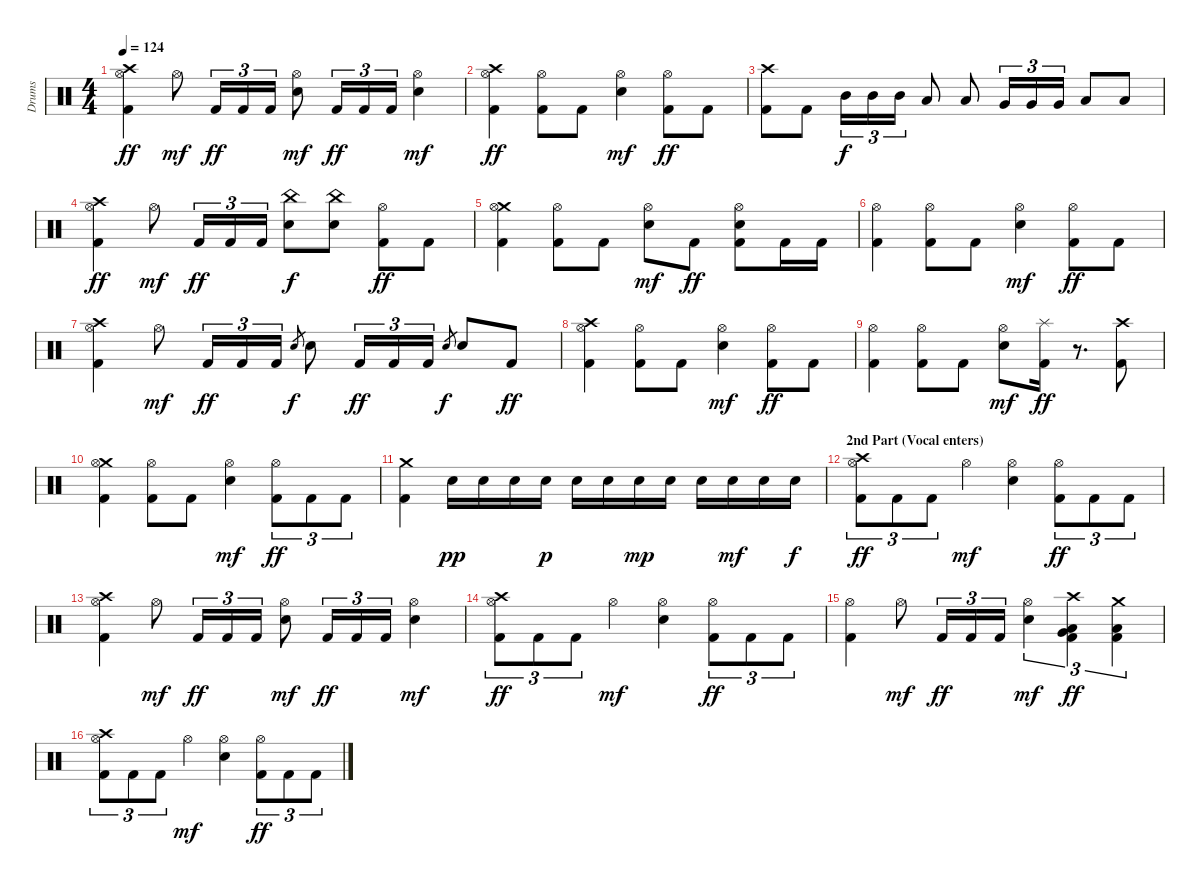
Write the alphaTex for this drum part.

\track ("Drums" "Drums") {instrument percussion}
\staff {score}
\articulation defaults
\ts (4 4)
\tempo 124
\clef neutral
\ks c
("Crash high (hit)" "Hi-Hat (open)" "Kick (hit) 2").4{dy ff} "Hi-Hat (open)".8{dy mf} "Kick (hit) 2".16{tu (3 2) dy ff} "Kick (hit) 2".16{tu (3 2)} "Kick (hit) 2".16{tu (3 2)} ("Hi-Hat (open)" "Snare (hit) 2").8{dy mf} "Kick (hit) 2".16{tu (3 2) dy ff} "Kick (hit) 2".16{tu (3 2)} "Kick (hit) 2".16{tu (3 2)} ("Hi-Hat (open)" "Snare (hit) 2").4{dy mf} |
("Crash high (hit)" "Hi-Hat (open)" "Kick (hit) 2").4{dy ff} ("Hi-Hat (open)" "Kick (hit) 2").8 "Kick (hit) 2".8 ("Hi-Hat (open)" "Snare (hit) 2").4{dy mf} ("Hi-Hat (open)" "Kick (hit) 2").8{dy ff} "Kick (hit) 2".8 |
("Crash high (hit)" "Kick (hit) 2").8 "Kick (hit) 2".8 "Mid Tom (hit)".16{tu (3 2) dy f} "Mid Tom (hit)".16{tu (3 2)} "Mid Tom (hit)".16{tu (3 2)} "Low Tom (hit)".8 "Low Tom (hit)".8 "Very Low Tom (hit)".16{tu (3 2)} "Very Low Tom (hit)".16{tu (3 2)} "Very Low Tom (hit)".16{tu (3 2)} "Low Floor Tom (hit)".8 "Low Floor Tom (hit)".8 |
("Crash high (hit)" "Hi-Hat (open)" "Kick (hit) 2").4{dy ff} "Hi-Hat (open)".8{dy mf} "Kick (hit) 2".16{tu (3 2) dy ff} "Kick (hit) 2".16{tu (3 2)} "Kick (hit) 2".16{tu (3 2)} ("China (hit)" "Snare (hit) 2").8{dy f} ("China (hit)" "Snare (hit) 2").8 ("Hi-Hat (open)" "Kick (hit) 2").8{dy ff} "Kick (hit) 2".8 |
("Crash medium (hit)" "Hi-Hat (open)" "Kick (hit) 2").4 ("Hi-Hat (open)" "Kick (hit) 2").8 "Kick (hit) 2".8 ("Hi-Hat (open)" "Snare (hit) 2").8{dy mf} "Kick (hit) 2".8{dy ff} ("Hi-Hat (open)" "Snare (hit) 2" "Kick (hit) 2").8 "Kick (hit) 2".16 "Kick (hit) 2".16 |
("Hi-Hat (open)" "Kick (hit) 2").4 ("Hi-Hat (open)" "Kick (hit) 2").8 "Kick (hit) 2".8 ("Hi-Hat (open)" "Snare (hit) 2").4{dy mf} ("Hi-Hat (open)" "Kick (hit) 2").8{dy ff} "Kick (hit) 2".8 |
("Crash high (hit)" "Hi-Hat (open)" "Kick (hit) 2").4 "Hi-Hat (open)".8{dy mf} "Kick (hit) 2".16{tu (3 2) dy ff} "Kick (hit) 2".16{tu (3 2)} "Kick (hit) 2".16{tu (3 2)} "Snare (hit) 2".8{gr dy f} "Snare (hit) 2".8 "Kick (hit) 2".16{tu (3 2) dy ff} "Kick (hit) 2".16{tu (3 2)} "Kick (hit) 2".16{tu (3 2)} "Snare (hit) 2".8{gr dy f} "Snare (hit) 2".8 "Kick (hit) 2".8{dy ff} |
("Crash high (hit)" "Hi-Hat (open)" "Kick (hit) 2").4 ("Hi-Hat (open)" "Kick (hit) 2").8 "Kick (hit) 2".8 ("Hi-Hat (open)" "Snare (hit) 2").4{dy mf} ("Hi-Hat (open)" "Kick (hit) 2").8{dy ff} "Kick (hit) 2".8 |
("Hi-Hat (open)" "Kick (hit) 2").4 ("Hi-Hat (open)" "Kick (hit) 2").8 "Kick (hit) 2".8 ("Hi-Hat (open)" "Snare (hit) 2").8{dy mf} ("Splash (hit)" "Kick (hit) 2").16{dy ff} r.8{d} ("Crash high (hit)" "Kick (hit) 2").8 |
("Crash medium (hit)" "Hi-Hat (open)" "Kick (hit) 2").4 ("Hi-Hat (open)" "Kick (hit) 2").8 "Kick (hit) 2".8 ("Hi-Hat (open)" "Snare (hit) 2").4{dy mf} ("Hi-Hat (open)" "Kick (hit) 2").8{tu (3 2) dy ff} "Kick (hit) 2".8{tu (3 2)} "Kick (hit) 2".8{tu (3 2)} |
("Crash medium (hit)" "Kick (hit) 2").4 "Snare (hit) 2".16{dy pp} "Snare (hit) 2".16 "Snare (hit) 2".16 "Snare (hit) 2".16{dy p} "Snare (hit) 2".16 "Snare (hit) 2".16 "Snare (hit) 2".16{dy mp} "Snare (hit) 2".16 "Snare (hit) 2".16 "Snare (hit) 2".16{dy mf} "Snare (hit) 2".16 "Snare (hit) 2".16{dy f} |
\section ("" "2nd Part (Vocal enters)")
("Crash high (hit)" "Hi-Hat (open)" "Kick (hit) 2").8{tu (3 2) dy ff} "Kick (hit) 2".8{tu (3 2)} "Kick (hit) 2".8{tu (3 2)} "Hi-Hat (open)".4{dy mf} ("Hi-Hat (open)" "Snare (hit) 2").4 ("Hi-Hat (open)" "Kick (hit) 2").8{tu (3 2) dy ff} "Kick (hit) 2".8{tu (3 2)} "Kick (hit) 2".8{tu (3 2)} |
("Crash high (hit)" "Hi-Hat (open)" "Kick (hit) 2").4 "Hi-Hat (open)".8{dy mf} "Kick (hit) 2".16{tu (3 2) dy ff} "Kick (hit) 2".16{tu (3 2)} "Kick (hit) 2".16{tu (3 2)} ("Hi-Hat (open)" "Snare (hit) 2").8{dy mf} "Kick (hit) 2".16{tu (3 2) dy ff} "Kick (hit) 2".16{tu (3 2)} "Kick (hit) 2".16{tu (3 2)} ("Hi-Hat (open)" "Snare (hit) 2").4{dy mf} |
("Crash high (hit)" "Hi-Hat (open)" "Kick (hit) 2").8{tu (3 2) dy ff} "Kick (hit) 2".8{tu (3 2)} "Kick (hit) 2".8{tu (3 2)} "Hi-Hat (open)".4{dy mf} ("Hi-Hat (open)" "Snare (hit) 2").4 ("Hi-Hat (open)" "Kick (hit) 2").8{tu (3 2) dy ff} "Kick (hit) 2".8{tu (3 2)} "Kick (hit) 2".8{tu (3 2)} |
("Hi-Hat (open)" "Kick (hit) 2").4 "Hi-Hat (open)".8{dy mf} "Kick (hit) 2".16{tu (3 2) dy ff} "Kick (hit) 2".16{tu (3 2)} "Kick (hit) 2".16{tu (3 2)} ("Hi-Hat (open)" "Snare (hit) 2").4{tu (3 2) dy mf} ("Crash high (hit)" "Very Low Tom (hit)" "Low Floor Tom (hit)" "Kick (hit) 2").4{tu (3 2) dy ff} ("Crash medium (hit)" "Low Floor Tom (hit)" "Kick (hit) 2").4{tu (3 2)} |
("Crash high (hit)" "Hi-Hat (open)" "Kick (hit) 2").8{tu (3 2)} "Kick (hit) 2".8{tu (3 2)} "Kick (hit) 2".8{tu (3 2)} "Hi-Hat (open)".4{dy mf} ("Hi-Hat (open)" "Snare (hit) 2").4 ("Hi-Hat (open)" "Kick (hit) 2").8{tu (3 2) dy ff} "Kick (hit) 2".8{tu (3 2)} "Kick (hit) 2".8{tu (3 2)}
